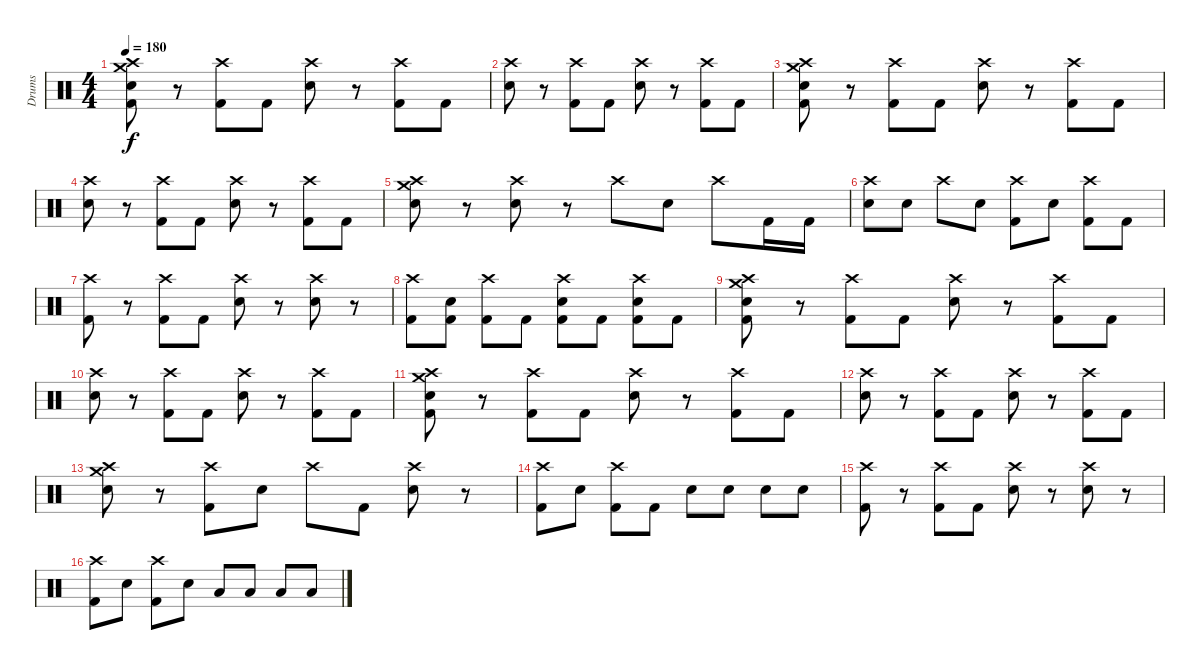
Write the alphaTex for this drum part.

\track ("Drums" "Drums") {instrument percussion}
\staff {score}
\articulation defaults
\ts (4 4)
\tempo 180
\clef neutral
\ks c
("Crash medium (hit)" "Crash high (hit)" "Electric Snare (hit)" "Kick (hit) 2").8{dy f} r.8 ("Crash high (hit)" "Kick (hit) 2").8 "Kick (hit) 2".8 ("Crash high (hit)" "Electric Snare (hit)").8 r.8 ("Crash high (hit)" "Kick (hit) 2").8 "Kick (hit) 2".8 |
("Crash high (hit)" "Electric Snare (hit)").8 r.8 ("Crash high (hit)" "Kick (hit) 2").8 "Kick (hit) 2".8 ("Crash high (hit)" "Electric Snare (hit)").8 r.8 ("Crash high (hit)" "Kick (hit) 2").8 "Kick (hit) 2".8 |
("Crash medium (hit)" "Crash high (hit)" "Electric Snare (hit)" "Kick (hit) 2").8 r.8 ("Crash high (hit)" "Kick (hit) 2").8 "Kick (hit) 2".8 ("Crash high (hit)" "Electric Snare (hit)").8 r.8 ("Crash high (hit)" "Kick (hit) 2").8 "Kick (hit) 2".8 |
("Crash high (hit)" "Electric Snare (hit)").8 r.8 ("Crash high (hit)" "Kick (hit) 2").8 "Kick (hit) 2".8 ("Crash high (hit)" "Electric Snare (hit)").8 r.8 ("Crash high (hit)" "Kick (hit) 2").8 "Kick (hit) 2".8 |
("Crash medium (hit)" "Crash high (hit)" "Electric Snare (hit)").8 r.8 ("Crash high (hit)" "Electric Snare (hit)").8 r.8 "Crash high (hit)".8 "Electric Snare (hit)".8 "Crash high (hit)".8 "Kick (hit) 2".16 "Kick (hit) 2".16 |
("Crash high (hit)" "Electric Snare (hit)").8 "Electric Snare (hit)".8 "Crash high (hit)".8 "Electric Snare (hit)".8 ("Crash high (hit)" "Kick (hit) 2").8 "Electric Snare (hit)".8 ("Crash high (hit)" "Kick (hit) 2").8 "Kick (hit) 2".8 |
("Crash high (hit)" "Kick (hit) 2").8 r.8 ("Crash high (hit)" "Kick (hit) 2").8 "Kick (hit) 2".8 ("Crash high (hit)" "Electric Snare (hit)").8 r.8 ("Crash high (hit)" "Electric Snare (hit)").8 r.8 |
("Crash high (hit)" "Kick (hit) 2").8 ("Electric Snare (hit)" "Kick (hit) 2").8 ("Crash high (hit)" "Kick (hit) 2").8 "Kick (hit) 2".8 ("Crash high (hit)" "Electric Snare (hit)" "Kick (hit) 2").8 "Kick (hit) 2".8 ("Crash high (hit)" "Electric Snare (hit)" "Kick (hit) 2").8 "Kick (hit) 2".8 |
("Crash medium (hit)" "Crash high (hit)" "Electric Snare (hit)" "Kick (hit) 2").8 r.8 ("Crash high (hit)" "Kick (hit) 2").8 "Kick (hit) 2".8 ("Crash high (hit)" "Electric Snare (hit)").8 r.8 ("Crash high (hit)" "Kick (hit) 2").8 "Kick (hit) 2".8 |
("Crash high (hit)" "Electric Snare (hit)").8 r.8 ("Crash high (hit)" "Kick (hit) 2").8 "Kick (hit) 2".8 ("Crash high (hit)" "Electric Snare (hit)").8 r.8 ("Crash high (hit)" "Kick (hit) 2").8 "Kick (hit) 2".8 |
("Crash medium (hit)" "Crash high (hit)" "Electric Snare (hit)" "Kick (hit) 2").8 r.8 ("Crash high (hit)" "Kick (hit) 2").8 "Kick (hit) 2".8 ("Crash high (hit)" "Electric Snare (hit)").8 r.8 ("Crash high (hit)" "Kick (hit) 2").8 "Kick (hit) 2".8 |
("Crash high (hit)" "Electric Snare (hit)").8 r.8 ("Crash high (hit)" "Kick (hit) 2").8 "Kick (hit) 2".8 ("Crash high (hit)" "Electric Snare (hit)").8 r.8 ("Crash high (hit)" "Kick (hit) 2").8 "Kick (hit) 2".8 |
("Crash medium (hit)" "Crash high (hit)" "Electric Snare (hit)").8 r.8 ("Crash high (hit)" "Kick (hit) 2").8 "Electric Snare (hit)".8 "Crash high (hit)".8 "Kick (hit) 2".8 ("Crash high (hit)" "Electric Snare (hit)").8 r.8 |
("Crash high (hit)" "Kick (hit) 2").8 "Electric Snare (hit)".8 ("Crash high (hit)" "Kick (hit) 2").8 "Kick (hit) 2".8 "Electric Snare (hit)".8 "Electric Snare (hit)".8 "Electric Snare (hit)".8 "Electric Snare (hit)".8 |
("Crash high (hit)" "Kick (hit) 2").8 r.8 ("Crash high (hit)" "Kick (hit) 2").8 "Kick (hit) 2".8 ("Crash high (hit)" "Electric Snare (hit)").8 r.8 ("Crash high (hit)" "Electric Snare (hit)").8 r.8 |
("Crash high (hit)" "Kick (hit) 2").8 "Electric Snare (hit)".8 ("Crash high (hit)" "Kick (hit) 2").8 "Electric Snare (hit)".8 "Low Tom (hit)".8 "Low Tom (hit)".8 "Low Tom (hit)".8 "Low Tom (hit)".8
